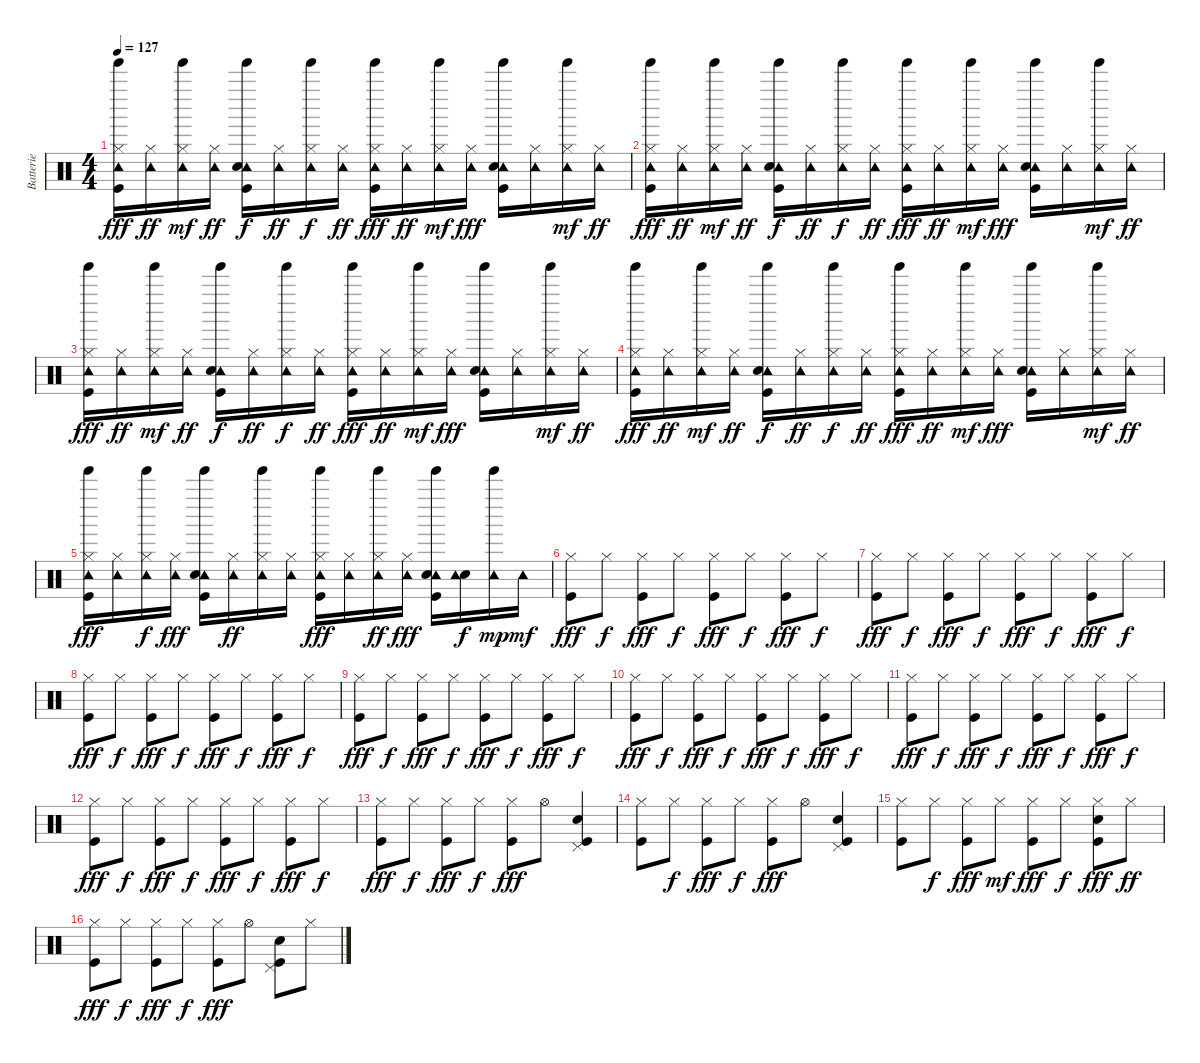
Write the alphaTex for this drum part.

\track ("Batterie" "Batterie") {instrument percussion}
\staff {score}
\articulation defaults
\ts (4 4)
\tempo 127
\clef neutral
\ks c
("Hi-Hat (closed)" "Tambourine (hit)" "Tinkle Bell (hit)" "Kick (hit)").16{dy fff} ("Tambourine (hit)" "Hi-Hat (closed)").16{dy ff} ("Hi-Hat (closed)" "Tambourine (hit)" "Tinkle Bell (hit)").16{dy mf} ("Tambourine (hit)" "Hi-Hat (closed)").16{dy ff} ("Tambourine (hit)" "Kick (hit)" "Snare (hit) 2" "Tinkle Bell (hit)").16{dy f} ("Tambourine (hit)" "Hi-Hat (closed)").16{dy ff} ("Tinkle Bell (hit)" "Tambourine (hit)" "Hi-Hat (closed)").16{dy f} ("Tambourine (hit)" "Hi-Hat (closed)").16{dy ff} ("Tinkle Bell (hit)" "Hi-Hat (closed)" "Tambourine (hit)" "Kick (hit)").16{dy fff} ("Tambourine (hit)" "Hi-Hat (closed)").16{dy ff} ("Hi-Hat (closed)" "Tinkle Bell (hit)" "Tambourine (hit)").16{dy mf} ("Tambourine (hit)" "Hi-Hat (closed)").16{dy fff} ("Tinkle Bell (hit)" "Tambourine (hit)" "Kick (hit)" "Snare (hit) 2").16 ("Tambourine (hit)" "Hi-Hat (closed)").16 ("Tambourine (hit)" "Tinkle Bell (hit)" "Hi-Hat (closed)").16{dy mf} ("Tambourine (hit)" "Hi-Hat (closed)").16{dy ff} |
("Hi-Hat (closed)" "Tambourine (hit)" "Tinkle Bell (hit)" "Kick (hit)").16{dy fff} ("Tambourine (hit)" "Hi-Hat (closed)").16{dy ff} ("Hi-Hat (closed)" "Tambourine (hit)" "Tinkle Bell (hit)").16{dy mf} ("Tambourine (hit)" "Hi-Hat (closed)").16{dy ff} ("Tambourine (hit)" "Kick (hit)" "Snare (hit) 2" "Tinkle Bell (hit)").16{dy f} ("Tambourine (hit)" "Hi-Hat (closed)").16{dy ff} ("Tinkle Bell (hit)" "Tambourine (hit)" "Hi-Hat (closed)").16{dy f} ("Tambourine (hit)" "Hi-Hat (closed)").16{dy ff} ("Tinkle Bell (hit)" "Hi-Hat (closed)" "Tambourine (hit)" "Kick (hit)").16{dy fff} ("Tambourine (hit)" "Hi-Hat (closed)").16{dy ff} ("Hi-Hat (closed)" "Tinkle Bell (hit)" "Tambourine (hit)").16{dy mf} ("Tambourine (hit)" "Hi-Hat (closed)").16{dy fff} ("Tinkle Bell (hit)" "Tambourine (hit)" "Kick (hit)" "Snare (hit) 2").16 ("Tambourine (hit)" "Hi-Hat (closed)").16 ("Tambourine (hit)" "Tinkle Bell (hit)" "Hi-Hat (closed)").16{dy mf} ("Tambourine (hit)" "Hi-Hat (closed)").16{dy ff} |
("Hi-Hat (closed)" "Tambourine (hit)" "Tinkle Bell (hit)" "Kick (hit)").16{dy fff} ("Tambourine (hit)" "Hi-Hat (closed)").16{dy ff} ("Hi-Hat (closed)" "Tambourine (hit)" "Tinkle Bell (hit)").16{dy mf} ("Tambourine (hit)" "Hi-Hat (closed)").16{dy ff} ("Tambourine (hit)" "Kick (hit)" "Snare (hit) 2" "Tinkle Bell (hit)").16{dy f} ("Tambourine (hit)" "Hi-Hat (closed)").16{dy ff} ("Tinkle Bell (hit)" "Tambourine (hit)" "Hi-Hat (closed)").16{dy f} ("Tambourine (hit)" "Hi-Hat (closed)").16{dy ff} ("Tinkle Bell (hit)" "Hi-Hat (closed)" "Tambourine (hit)" "Kick (hit)").16{dy fff} ("Tambourine (hit)" "Hi-Hat (closed)").16{dy ff} ("Hi-Hat (closed)" "Tinkle Bell (hit)" "Tambourine (hit)").16{dy mf} ("Tambourine (hit)" "Hi-Hat (closed)").16{dy fff} ("Tinkle Bell (hit)" "Tambourine (hit)" "Kick (hit)" "Snare (hit) 2").16 ("Tambourine (hit)" "Hi-Hat (closed)").16 ("Tambourine (hit)" "Tinkle Bell (hit)" "Hi-Hat (closed)").16{dy mf} ("Tambourine (hit)" "Hi-Hat (closed)").16{dy ff} |
("Hi-Hat (closed)" "Tambourine (hit)" "Tinkle Bell (hit)" "Kick (hit)").16{dy fff} ("Tambourine (hit)" "Hi-Hat (closed)").16{dy ff} ("Hi-Hat (closed)" "Tambourine (hit)" "Tinkle Bell (hit)").16{dy mf} ("Tambourine (hit)" "Hi-Hat (closed)").16{dy ff} ("Tambourine (hit)" "Kick (hit)" "Snare (hit) 2" "Tinkle Bell (hit)").16{dy f} ("Tambourine (hit)" "Hi-Hat (closed)").16{dy ff} ("Tinkle Bell (hit)" "Tambourine (hit)" "Hi-Hat (closed)").16{dy f} ("Tambourine (hit)" "Hi-Hat (closed)").16{dy ff} ("Tinkle Bell (hit)" "Hi-Hat (closed)" "Tambourine (hit)" "Kick (hit)").16{dy fff} ("Tambourine (hit)" "Hi-Hat (closed)").16{dy ff} ("Hi-Hat (closed)" "Tinkle Bell (hit)" "Tambourine (hit)").16{dy mf} ("Tambourine (hit)" "Hi-Hat (closed)").16{dy fff} ("Tinkle Bell (hit)" "Tambourine (hit)" "Kick (hit)" "Snare (hit) 2").16 ("Tambourine (hit)" "Hi-Hat (closed)").16 ("Tambourine (hit)" "Tinkle Bell (hit)" "Hi-Hat (closed)").16{dy mf} ("Tambourine (hit)" "Hi-Hat (closed)").16{dy ff} |
("Tambourine (hit)" "Tinkle Bell (hit)" "Kick (hit)" "Hi-Hat (closed)").16{dy fff} ("Tambourine (hit)" "Hi-Hat (closed)").16 ("Tinkle Bell (hit)" "Tambourine (hit)" "Hi-Hat (closed)").16{dy f} ("Tambourine (hit)" "Hi-Hat (closed)").16{dy fff} ("Tambourine (hit)" "Tinkle Bell (hit)" "Kick (hit)" "Snare (hit) 2").16 ("Tambourine (hit)" "Hi-Hat (closed)").16{dy ff} ("Tinkle Bell (hit)" "Tambourine (hit)" "Hi-Hat (closed)").16 ("Tambourine (hit)" "Hi-Hat (closed)").16 ("Tinkle Bell (hit)" "Kick (hit)" "Tambourine (hit)" "Hi-Hat (closed)").16{dy fff} ("Tambourine (hit)" "Hi-Hat (closed)").16 ("Tambourine (hit)" "Tinkle Bell (hit)" "Hi-Hat (closed)").16{dy ff} ("Tambourine (hit)" "Hi-Hat (closed)").16{dy fff} ("Tambourine (hit)" "Tinkle Bell (hit)" "Snare (hit) 2" "Kick (hit)").16 ("Snare (hit) 2" "Tambourine (hit)").16{dy f} ("Tambourine (hit)" "Tinkle Bell (hit)").16{dy mp} "Tambourine (hit)".16{dy mf} |
("Kick (hit)" "Hi-Hat (closed)").8{dy fff} "Hi-Hat (closed)".8{dy f} ("Kick (hit)" "Hi-Hat (closed)").8{dy fff} "Hi-Hat (closed)".8{dy f} ("Kick (hit)" "Hi-Hat (closed)").8{dy fff} "Hi-Hat (closed)".8{dy f} ("Kick (hit)" "Hi-Hat (closed)").8{dy fff} "Hi-Hat (closed)".8{dy f} |
("Kick (hit)" "Hi-Hat (closed)").8{dy fff} "Hi-Hat (closed)".8{dy f} ("Kick (hit)" "Hi-Hat (closed)").8{dy fff} "Hi-Hat (closed)".8{dy f} ("Kick (hit)" "Hi-Hat (closed)").8{dy fff} "Hi-Hat (closed)".8{dy f} ("Kick (hit)" "Hi-Hat (closed)").8{dy fff} "Hi-Hat (closed)".8{dy f} |
("Kick (hit)" "Hi-Hat (closed)").8{dy fff} "Hi-Hat (closed)".8{dy f} ("Kick (hit)" "Hi-Hat (closed)").8{dy fff} "Hi-Hat (closed)".8{dy f} ("Kick (hit)" "Hi-Hat (closed)").8{dy fff} "Hi-Hat (closed)".8{dy f} ("Kick (hit)" "Hi-Hat (closed)").8{dy fff} "Hi-Hat (closed)".8{dy f} |
("Kick (hit)" "Hi-Hat (closed)").8{dy fff} "Hi-Hat (closed)".8{dy f} ("Kick (hit)" "Hi-Hat (closed)").8{dy fff} "Hi-Hat (closed)".8{dy f} ("Kick (hit)" "Hi-Hat (closed)").8{dy fff} "Hi-Hat (closed)".8{dy f} ("Kick (hit)" "Hi-Hat (closed)").8{dy fff} "Hi-Hat (closed)".8{dy f} |
("Kick (hit)" "Hi-Hat (closed)").8{dy fff} "Hi-Hat (closed)".8{dy f} ("Kick (hit)" "Hi-Hat (closed)").8{dy fff} "Hi-Hat (closed)".8{dy f} ("Kick (hit)" "Hi-Hat (closed)").8{dy fff} "Hi-Hat (closed)".8{dy f} ("Kick (hit)" "Hi-Hat (closed)").8{dy fff} "Hi-Hat (closed)".8{dy f} |
("Kick (hit)" "Hi-Hat (closed)").8{dy fff} "Hi-Hat (closed)".8{dy f} ("Kick (hit)" "Hi-Hat (closed)").8{dy fff} "Hi-Hat (closed)".8{dy f} ("Kick (hit)" "Hi-Hat (closed)").8{dy fff} "Hi-Hat (closed)".8{dy f} ("Kick (hit)" "Hi-Hat (closed)").8{dy fff} "Hi-Hat (closed)".8{dy f} |
("Kick (hit)" "Hi-Hat (closed)").8{dy fff} "Hi-Hat (closed)".8{dy f} ("Kick (hit)" "Hi-Hat (closed)").8{dy fff} "Hi-Hat (closed)".8{dy f} ("Kick (hit)" "Hi-Hat (closed)").8{dy fff} "Hi-Hat (closed)".8{dy f} ("Kick (hit)" "Hi-Hat (closed)").8{dy fff} "Hi-Hat (closed)".8{dy f} |
("Kick (hit)" "Hi-Hat (closed)").8{dy fff} "Hi-Hat (closed)".8{dy f} ("Kick (hit)" "Hi-Hat (closed)").8{dy fff} "Hi-Hat (closed)".8{dy f} ("Kick (hit)" "Hi-Hat (closed)").8{dy fff} "Hi-Hat (open)".8 ("Kick (hit)" "Snare (hit) 2" "Pedal Hi-Hat (hit)").4 |
("Kick (hit)" "Hi-Hat (closed)").8 "Hi-Hat (closed)".8{dy f} ("Kick (hit)" "Hi-Hat (closed)").8{dy fff} "Hi-Hat (closed)".8{dy f} ("Kick (hit)" "Hi-Hat (closed)").8{dy fff} "Hi-Hat (open)".8 ("Kick (hit)" "Snare (hit) 2" "Pedal Hi-Hat (hit)").4 |
("Kick (hit)" "Hi-Hat (closed)").8 "Hi-Hat (closed)".8{dy f} ("Kick (hit)" "Hi-Hat (closed)").8{dy fff} "Hi-Hat (closed)".8{dy mf} ("Hi-Hat (closed)" "Kick (hit)").8{dy fff} "Hi-Hat (closed)".8{dy f} ("Hi-Hat (closed)" "Snare (hit) 2" "Kick (hit)").8{dy fff} "Hi-Hat (closed)".8{dy ff} |
("Kick (hit)" "Hi-Hat (closed)").8{dy fff} "Hi-Hat (closed)".8{dy f} ("Kick (hit)" "Hi-Hat (closed)").8{dy fff} "Hi-Hat (closed)".8{dy f} ("Kick (hit)" "Hi-Hat (closed)").8{dy fff} "Hi-Hat (open)".8 ("Kick (hit)" "Snare (hit) 2" "Pedal Hi-Hat (hit)").8 "Hi-Hat (closed)".8
